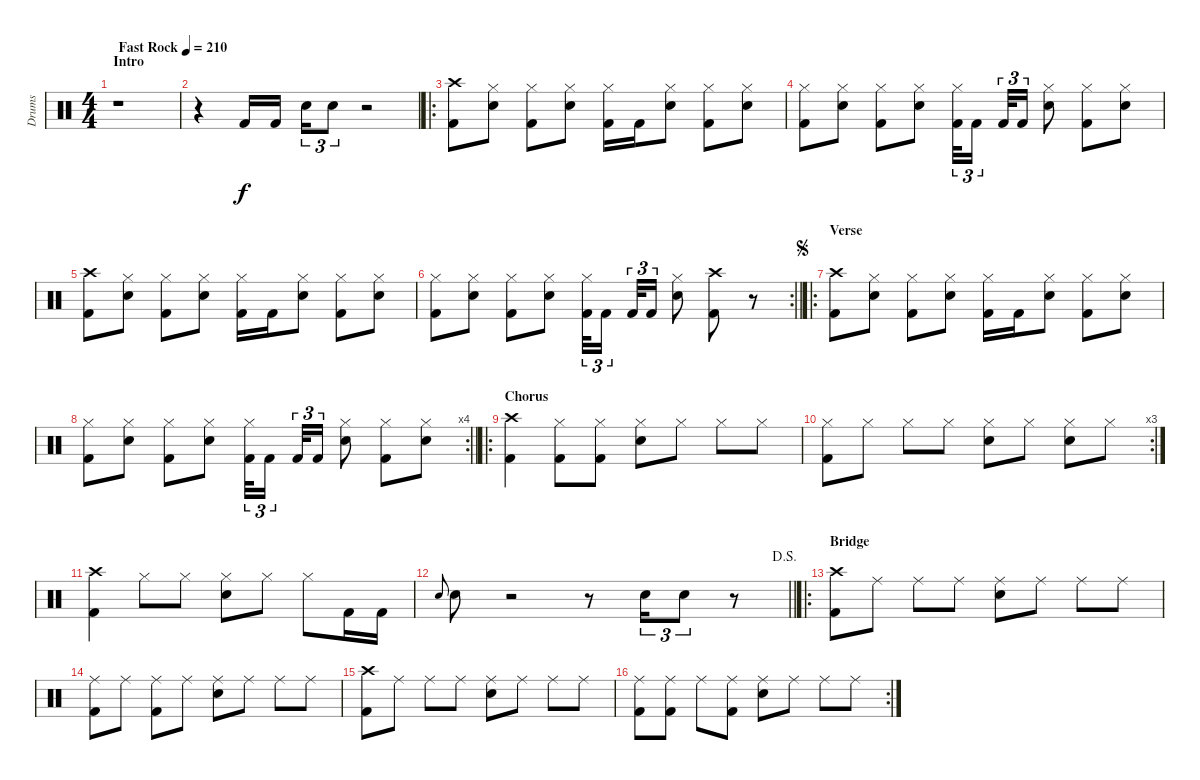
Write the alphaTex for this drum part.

\track ("Drums" "Drums") {instrument percussion}
\staff {score}
\articulation defaults
\ts (4 4)
\section ("" "Intro")
\tempo (210 "Fast Rock")
\clef neutral
\ks c
r.1{dy f} |
r.4 "Kick (hit) 2".16 "Kick (hit) 2".16{beam splitsecondary} "Electric Snare (hit)".16{tu (3 2)} "Electric Snare (hit)".8{tu (3 2)} r.2 |
\ro
("Kick (hit) 2" "Crash high (hit)").8 ("Electric Snare (hit)" "Hi-Hat (closed)").8 ("Kick (hit) 2" "Hi-Hat (closed)").8 ("Electric Snare (hit)" "Hi-Hat (closed)").8 ("Kick (hit) 2" "Hi-Hat (closed)").16 "Kick (hit) 2".16 ("Electric Snare (hit)" "Hi-Hat (closed)").8 ("Kick (hit) 2" "Hi-Hat (closed)").8 ("Electric Snare (hit)" "Hi-Hat (closed)").8 |
("Kick (hit) 2" "Hi-Hat (closed)").8 ("Electric Snare (hit)" "Hi-Hat (closed)").8 ("Kick (hit) 2" "Hi-Hat (closed)").8 ("Electric Snare (hit)" "Hi-Hat (closed)").8 ("Kick (hit) 2" "Hi-Hat (closed)").32{tu (3 2)} "Kick (hit) 2".16{tu (3 2) beam splitsecondary} "Kick (hit) 2".32{tu (3 2)} "Kick (hit) 2".16{tu (3 2)} ("Electric Snare (hit)" "Hi-Hat (closed)").8 ("Kick (hit) 2" "Hi-Hat (closed)").8 ("Electric Snare (hit)" "Hi-Hat (closed)").8 |
("Kick (hit) 2" "Crash high (hit)").8 ("Electric Snare (hit)" "Hi-Hat (closed)").8 ("Kick (hit) 2" "Hi-Hat (closed)").8 ("Electric Snare (hit)" "Hi-Hat (closed)").8 ("Kick (hit) 2" "Hi-Hat (closed)").16 "Kick (hit) 2".16 ("Electric Snare (hit)" "Hi-Hat (closed)").8 ("Kick (hit) 2" "Hi-Hat (closed)").8 ("Electric Snare (hit)" "Hi-Hat (closed)").8 |
\rc 2
\barLineRight lightlight
("Kick (hit) 2" "Hi-Hat (closed)").8 ("Electric Snare (hit)" "Hi-Hat (closed)").8 ("Kick (hit) 2" "Hi-Hat (closed)").8 ("Electric Snare (hit)" "Hi-Hat (closed)").8 ("Kick (hit) 2" "Hi-Hat (closed)").32{tu (3 2)} "Kick (hit) 2".16{tu (3 2) beam splitsecondary} "Kick (hit) 2".32{tu (3 2)} "Kick (hit) 2".16{tu (3 2)} ("Electric Snare (hit)" "Hi-Hat (closed)").8 ("Kick (hit) 2" "Crash high (hit)").8 r.8 |
\ro
\section ("" "Verse")
\jump segno
("Kick (hit) 2" "Crash high (hit)").8 ("Electric Snare (hit)" "Hi-Hat (closed)").8 ("Kick (hit) 2" "Hi-Hat (closed)").8 ("Electric Snare (hit)" "Hi-Hat (closed)").8 ("Kick (hit) 2" "Hi-Hat (closed)").16 "Kick (hit) 2".16 ("Electric Snare (hit)" "Hi-Hat (closed)").8 ("Kick (hit) 2" "Hi-Hat (closed)").8 ("Electric Snare (hit)" "Hi-Hat (closed)").8 |
\rc 4
\barLineRight lightlight
("Kick (hit) 2" "Hi-Hat (closed)").8 ("Electric Snare (hit)" "Hi-Hat (closed)").8 ("Kick (hit) 2" "Hi-Hat (closed)").8 ("Electric Snare (hit)" "Hi-Hat (closed)").8 ("Kick (hit) 2" "Hi-Hat (closed)").32{tu (3 2)} "Kick (hit) 2".16{tu (3 2) beam splitsecondary} "Kick (hit) 2".32{tu (3 2)} "Kick (hit) 2".16{tu (3 2)} ("Electric Snare (hit)" "Hi-Hat (closed)").8 ("Kick (hit) 2" "Hi-Hat (closed)").8 ("Electric Snare (hit)" "Hi-Hat (closed)").8 |
\ro
\section ("" "Chorus")
("Kick (hit) 2" "Crash high (hit)").4 ("Kick (hit) 2" "Hi-Hat (closed)").8 ("Kick (hit) 2" "Hi-Hat (closed)").8 ("Electric Snare (hit)" "Hi-Hat (closed)").8 "Hi-Hat (closed)".8 "Hi-Hat (closed)".8 "Hi-Hat (closed)".8 |
\rc 3
("Kick (hit) 2" "Hi-Hat (closed)").8 "Hi-Hat (closed)".8 "Hi-Hat (closed)".8 "Hi-Hat (closed)".8 ("Electric Snare (hit)" "Hi-Hat (closed)").8 "Hi-Hat (closed)".8 ("Electric Snare (hit)" "Hi-Hat (closed)").8 "Hi-Hat (closed)".8 |
("Kick (hit) 2" "Crash high (hit)").4 "Hi-Hat (closed)".8 "Hi-Hat (closed)".8 ("Electric Snare (hit)" "Hi-Hat (closed)").8 "Hi-Hat (closed)".8 "Hi-Hat (closed)".8 "Kick (hit) 2".16 "Kick (hit) 2".16 |
\jump dalsegno
\barLineRight lightlight "Electric Snare (hit)".8{gr onbeat} "Electric Snare (hit)".8
r.2 r.8 "Electric Snare (hit)".16{tu (3 2)} "Electric Snare (hit)".8{tu (3 2)} r.8 |
\ro
\section ("" "Bridge")
("Kick (hit) 2" "Crash high (hit)").8 "Ride (middle)".8 "Ride (middle)".8 "Ride (middle)".8 ("Electric Snare (hit)" "Ride (middle)").8 "Ride (middle)".8 "Ride (middle)".8 "Ride (middle)".8 |
("Kick (hit) 2" "Ride (middle)").8 "Ride (middle)".8 ("Kick (hit) 2" "Ride (middle)").8 "Ride (middle)".8 ("Electric Snare (hit)" "Ride (middle)").8 "Ride (middle)".8 "Ride (middle)".8 "Ride (middle)".8 |
("Kick (hit) 2" "Crash high (hit)").8 "Ride (middle)".8 "Ride (middle)".8 "Ride (middle)".8 ("Electric Snare (hit)" "Ride (middle)").8 "Ride (middle)".8 "Ride (middle)".8 "Ride (middle)".8 |
\rc 2
("Kick (hit) 2" "Ride (middle)").8 ("Kick (hit) 2" "Ride (middle)").8 "Ride (middle)".8 ("Kick (hit) 2" "Ride (middle)").8 ("Electric Snare (hit)" "Ride (middle)").8 "Ride (middle)".8 "Ride (middle)".8 "Ride (middle)".8
